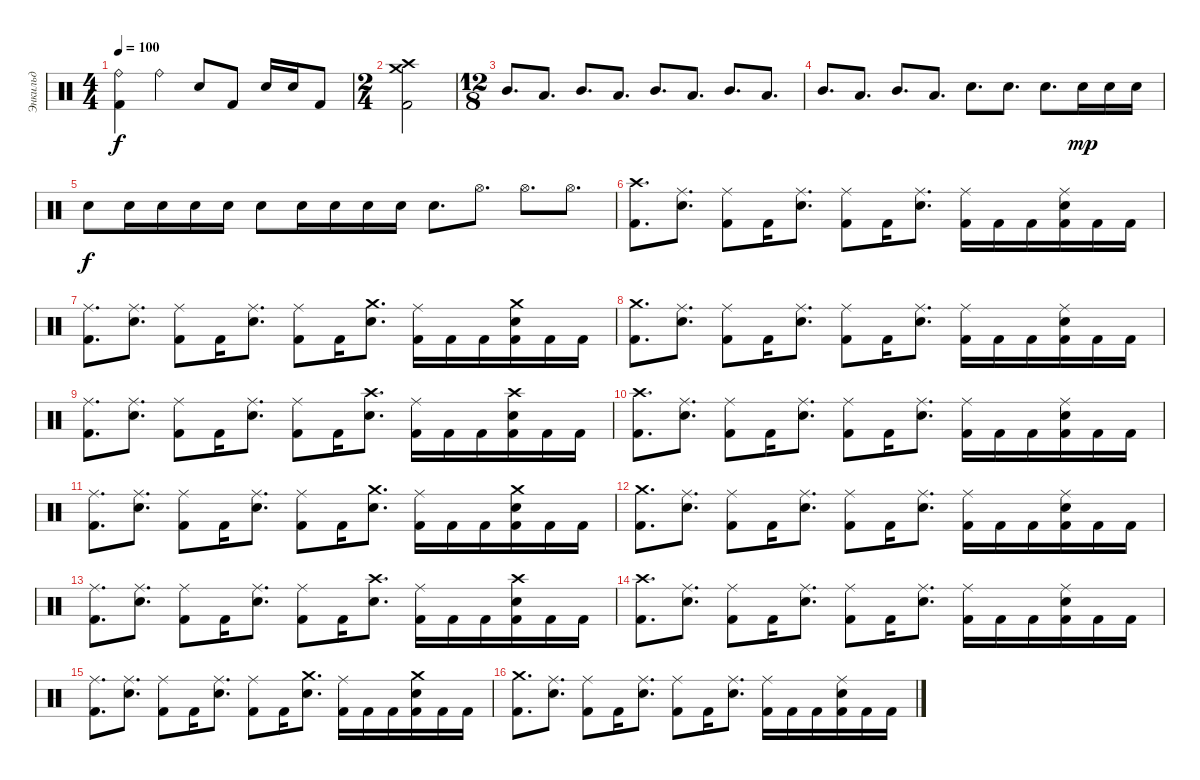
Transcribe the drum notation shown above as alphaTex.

\track ("Энкильд" "Энкильд") {instrument percussion}
\staff {score}
\articulation defaults
\ts (4 4)
\tempo 100
\clef neutral
\ks c
("Ride (bell)" "Kick (hit) 2").4{dy f} "Ride (bell)".4 "Snare (hit) 2".8 "Kick (hit) 2".8 "Snare (hit) 2".16 "Snare (hit) 2".16 "Kick (hit) 2".8 |
\ts (2 4)
("Crash medium (hit)" "Crash high (hit)" "Kick (hit) 2").2 |
\ts (12 8)
"Mid Tom (hit)".8{d} "Low Tom (hit)".8{d} "Mid Tom (hit)".8{d} "Low Tom (hit)".8{d} "Mid Tom (hit)".8{d} "Low Tom (hit)".8{d} "Mid Tom (hit)".8{d} "Low Tom (hit)".8{d} |
"Mid Tom (hit)".8{d} "Low Tom (hit)".8{d} "Mid Tom (hit)".8{d} "Low Tom (hit)".8{d} "Snare (hit) 2".8{d} "Snare (hit) 2".8{d} "Snare (hit) 2".8{d} "Snare (hit) 2".16{dy mp} "Snare (hit) 2".16 "Snare (hit) 2".16 |
"Snare (hit) 2".8{dy f} "Snare (hit) 2".16 "Snare (hit) 2".16 "Snare (hit) 2".16 "Snare (hit) 2".16 "Snare (hit) 2".8 "Snare (hit) 2".16 "Snare (hit) 2".16 "Snare (hit) 2".16 "Snare (hit) 2".16 "Snare (hit) 2".8{d} "Hi-Hat (open)".8{d} "Hi-Hat (open)".8{d} "Hi-Hat (open)".8{d} |
("Crash high (hit)" "Kick (hit) 2").8{d} ("Ride (middle)" "Snare (hit) 2").8{d} ("Ride (middle)" "Kick (hit) 2").8 "Kick (hit) 2".16 ("Ride (middle)" "Snare (hit) 2").8{d} ("Ride (middle)" "Kick (hit) 2").8 "Kick (hit) 2".16 ("Ride (middle)" "Snare (hit) 2").8{d} ("Ride (middle)" "Kick (hit) 2").16 "Kick (hit) 2".16 "Kick (hit) 2".16 ("Ride (middle)" "Kick (hit) 2" "Snare (hit) 2").16 "Kick (hit) 2".16 "Kick (hit) 2".16 |
("Ride (middle)" "Kick (hit) 2").8{d} ("Ride (middle)" "Snare (hit) 2").8{d} ("Ride (middle)" "Kick (hit) 2").8 "Kick (hit) 2".16 ("Ride (middle)" "Snare (hit) 2").8{d} ("Ride (middle)" "Kick (hit) 2").8 "Kick (hit) 2".16 ("Crash medium (hit)" "Snare (hit) 2").8{d} ("Ride (middle)" "Kick (hit) 2").16 "Kick (hit) 2".16 "Kick (hit) 2".16 ("Crash medium (hit)" "Kick (hit) 2" "Snare (hit) 2").16 "Kick (hit) 2".16 "Kick (hit) 2".16 |
("Crash medium (hit)" "Kick (hit) 2").8{d} ("Ride (middle)" "Snare (hit) 2").8{d} ("Ride (middle)" "Kick (hit) 2").8 "Kick (hit) 2".16 ("Ride (middle)" "Snare (hit) 2").8{d} ("Ride (middle)" "Kick (hit) 2").8 "Kick (hit) 2".16 ("Ride (middle)" "Snare (hit) 2").8{d} ("Ride (middle)" "Kick (hit) 2").16 "Kick (hit) 2".16 "Kick (hit) 2".16 ("Ride (middle)" "Kick (hit) 2" "Snare (hit) 2").16 "Kick (hit) 2".16 "Kick (hit) 2".16 |
("Ride (middle)" "Kick (hit) 2").8{d} ("Ride (middle)" "Snare (hit) 2").8{d} ("Ride (middle)" "Kick (hit) 2").8 "Kick (hit) 2".16 ("Ride (middle)" "Snare (hit) 2").8{d} ("Ride (middle)" "Kick (hit) 2").8 "Kick (hit) 2".16 ("Crash high (hit)" "Snare (hit) 2").8{d} ("Ride (middle)" "Kick (hit) 2").16 "Kick (hit) 2".16 "Kick (hit) 2".16 ("Crash high (hit)" "Kick (hit) 2" "Snare (hit) 2").16 "Kick (hit) 2".16 "Kick (hit) 2".16 |
("Crash high (hit)" "Kick (hit) 2").8{d} ("Ride (middle)" "Snare (hit) 2").8{d} ("Ride (middle)" "Kick (hit) 2").8 "Kick (hit) 2".16 ("Ride (middle)" "Snare (hit) 2").8{d} ("Ride (middle)" "Kick (hit) 2").8 "Kick (hit) 2".16 ("Ride (middle)" "Snare (hit) 2").8{d} ("Ride (middle)" "Kick (hit) 2").16 "Kick (hit) 2".16 "Kick (hit) 2".16 ("Ride (middle)" "Kick (hit) 2" "Snare (hit) 2").16 "Kick (hit) 2".16 "Kick (hit) 2".16 |
("Ride (middle)" "Kick (hit) 2").8{d} ("Ride (middle)" "Snare (hit) 2").8{d} ("Ride (middle)" "Kick (hit) 2").8 "Kick (hit) 2".16 ("Ride (middle)" "Snare (hit) 2").8{d} ("Ride (middle)" "Kick (hit) 2").8 "Kick (hit) 2".16 ("Crash medium (hit)" "Snare (hit) 2").8{d} ("Ride (middle)" "Kick (hit) 2").16 "Kick (hit) 2".16 "Kick (hit) 2".16 ("Crash medium (hit)" "Kick (hit) 2" "Snare (hit) 2").16 "Kick (hit) 2".16 "Kick (hit) 2".16 |
("Crash medium (hit)" "Kick (hit) 2").8{d} ("Ride (middle)" "Snare (hit) 2").8{d} ("Ride (middle)" "Kick (hit) 2").8 "Kick (hit) 2".16 ("Ride (middle)" "Snare (hit) 2").8{d} ("Ride (middle)" "Kick (hit) 2").8 "Kick (hit) 2".16 ("Ride (middle)" "Snare (hit) 2").8{d} ("Ride (middle)" "Kick (hit) 2").16 "Kick (hit) 2".16 "Kick (hit) 2".16 ("Ride (middle)" "Kick (hit) 2" "Snare (hit) 2").16 "Kick (hit) 2".16 "Kick (hit) 2".16 |
("Ride (middle)" "Kick (hit) 2").8{d} ("Ride (middle)" "Snare (hit) 2").8{d} ("Ride (middle)" "Kick (hit) 2").8 "Kick (hit) 2".16 ("Ride (middle)" "Snare (hit) 2").8{d} ("Ride (middle)" "Kick (hit) 2").8 "Kick (hit) 2".16 ("Crash high (hit)" "Snare (hit) 2").8{d} ("Ride (middle)" "Kick (hit) 2").16 "Kick (hit) 2".16 "Kick (hit) 2".16 ("Crash high (hit)" "Kick (hit) 2" "Snare (hit) 2").16 "Kick (hit) 2".16 "Kick (hit) 2".16 |
("Crash high (hit)" "Kick (hit) 2").8{d} ("Ride (middle)" "Snare (hit) 2").8{d} ("Ride (middle)" "Kick (hit) 2").8 "Kick (hit) 2".16 ("Ride (middle)" "Snare (hit) 2").8{d} ("Ride (middle)" "Kick (hit) 2").8 "Kick (hit) 2".16 ("Ride (middle)" "Snare (hit) 2").8{d} ("Ride (middle)" "Kick (hit) 2").16 "Kick (hit) 2".16 "Kick (hit) 2".16 ("Ride (middle)" "Kick (hit) 2" "Snare (hit) 2").16 "Kick (hit) 2".16 "Kick (hit) 2".16 |
("Ride (middle)" "Kick (hit) 2").8{d} ("Ride (middle)" "Snare (hit) 2").8{d} ("Ride (middle)" "Kick (hit) 2").8 "Kick (hit) 2".16 ("Ride (middle)" "Snare (hit) 2").8{d} ("Ride (middle)" "Kick (hit) 2").8 "Kick (hit) 2".16 ("Crash medium (hit)" "Snare (hit) 2").8{d} ("Ride (middle)" "Kick (hit) 2").16 "Kick (hit) 2".16 "Kick (hit) 2".16 ("Crash medium (hit)" "Kick (hit) 2" "Snare (hit) 2").16 "Kick (hit) 2".16 "Kick (hit) 2".16 |
("Crash medium (hit)" "Kick (hit) 2").8{d} ("Ride (middle)" "Snare (hit) 2").8{d} ("Ride (middle)" "Kick (hit) 2").8 "Kick (hit) 2".16 ("Ride (middle)" "Snare (hit) 2").8{d} ("Ride (middle)" "Kick (hit) 2").8 "Kick (hit) 2".16 ("Ride (middle)" "Snare (hit) 2").8{d} ("Ride (middle)" "Kick (hit) 2").16 "Kick (hit) 2".16 "Kick (hit) 2".16 ("Ride (middle)" "Kick (hit) 2" "Snare (hit) 2").16 "Kick (hit) 2".16 "Kick (hit) 2".16
